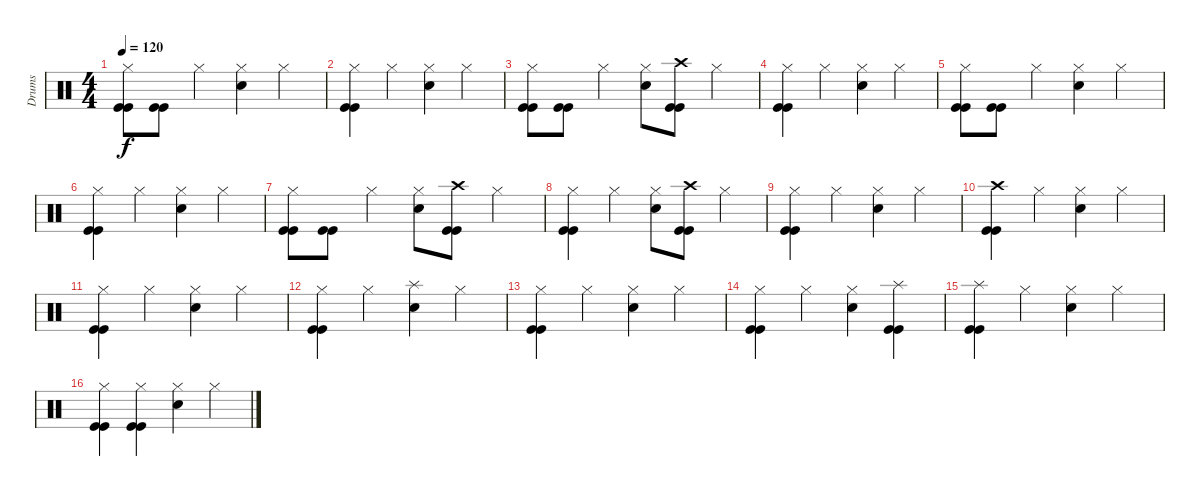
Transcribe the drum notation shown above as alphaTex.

\track ("Drums" "Drums") {instrument percussion}
\staff {score}
\articulation defaults
\ts (4 4)
\tempo 120
\clef neutral
\ks c
("Hi-Hat (closed)" "Kick (hit)" "Kick (hit)").8{dy f} ("Kick (hit)" "Kick (hit)").8 "Hi-Hat (closed)".4 ("Hi-Hat (closed)" "Snare (hit) 2").4 "Hi-Hat (closed)".4 |
("Hi-Hat (closed)" "Kick (hit)" "Kick (hit)").4 "Hi-Hat (closed)".4 ("Hi-Hat (closed)" "Snare (hit) 2").4 "Hi-Hat (closed)".4 |
("Hi-Hat (closed)" "Kick (hit)" "Kick (hit)").8 ("Kick (hit)" "Kick (hit)").8 "Hi-Hat (closed)".4 ("Hi-Hat (closed)" "Snare (hit) 2").8 ("Crash high (hit)" "Kick (hit)" "Kick (hit)").8 "Hi-Hat (closed)".4 |
("Hi-Hat (closed)" "Kick (hit)" "Kick (hit)").4 "Hi-Hat (closed)".4 ("Hi-Hat (closed)" "Snare (hit) 2").4 "Hi-Hat (closed)".4 |
("Hi-Hat (closed)" "Kick (hit)" "Kick (hit)").8 ("Kick (hit)" "Kick (hit)").8 "Hi-Hat (closed)".4 ("Hi-Hat (closed)" "Snare (hit) 2").4 "Hi-Hat (closed)".4 |
("Hi-Hat (closed)" "Kick (hit)" "Kick (hit)").4 "Hi-Hat (closed)".4 ("Hi-Hat (closed)" "Snare (hit) 2").4 "Hi-Hat (closed)".4 |
("Hi-Hat (closed)" "Kick (hit)" "Kick (hit)").8 ("Kick (hit)" "Kick (hit)").8 "Hi-Hat (closed)".4 ("Hi-Hat (closed)" "Snare (hit) 2").8 ("Crash high (hit)" "Kick (hit)" "Kick (hit)").8 "Hi-Hat (closed)".4 |
("Hi-Hat (closed)" "Kick (hit)" "Kick (hit)").4 "Hi-Hat (closed)".4 ("Hi-Hat (closed)" "Snare (hit) 2").8 ("Crash high (hit)" "Kick (hit)" "Kick (hit)").8 "Hi-Hat (closed)".4 |
("Hi-Hat (closed)" "Kick (hit)" "Kick (hit)").4 "Hi-Hat (closed)".4 ("Hi-Hat (closed)" "Snare (hit) 2").4 "Hi-Hat (closed)".4 |
("Crash high (hit)" "Kick (hit)" "Kick (hit)").4 "Hi-Hat (closed)".4 ("Hi-Hat (closed)" "Snare (hit) 2").4 "Hi-Hat (closed)".4 |
("Hi-Hat (closed)" "Kick (hit)" "Kick (hit)").4 "Hi-Hat (closed)".4 ("Hi-Hat (closed)" "Snare (hit) 2").4 "Hi-Hat (closed)".4 |
("Hi-Hat (closed)" "Kick (hit)" "Kick (hit)").4 "Hi-Hat (closed)".4 ("Splash (hit)" "Snare (hit) 2").4 "Hi-Hat (closed)".4 |
("Hi-Hat (closed)" "Kick (hit)" "Kick (hit)").4 "Hi-Hat (closed)".4 ("Hi-Hat (closed)" "Snare (hit) 2").4 "Hi-Hat (closed)".4 |
("Hi-Hat (closed)" "Kick (hit)" "Kick (hit)").4 "Hi-Hat (closed)".4 ("Hi-Hat (closed)" "Snare (hit) 2").4 ("Splash (hit)" "Kick (hit)" "Kick (hit)").4 |
("Splash (hit)" "Kick (hit)" "Kick (hit)").4 "Hi-Hat (closed)".4 ("Hi-Hat (closed)" "Snare (hit) 2").4 "Hi-Hat (closed)".4 |
("Hi-Hat (closed)" "Kick (hit)" "Kick (hit)").4 ("Hi-Hat (closed)" "Kick (hit)" "Kick (hit)").4 ("Hi-Hat (closed)" "Snare (hit) 2").4 "Hi-Hat (closed)".4
